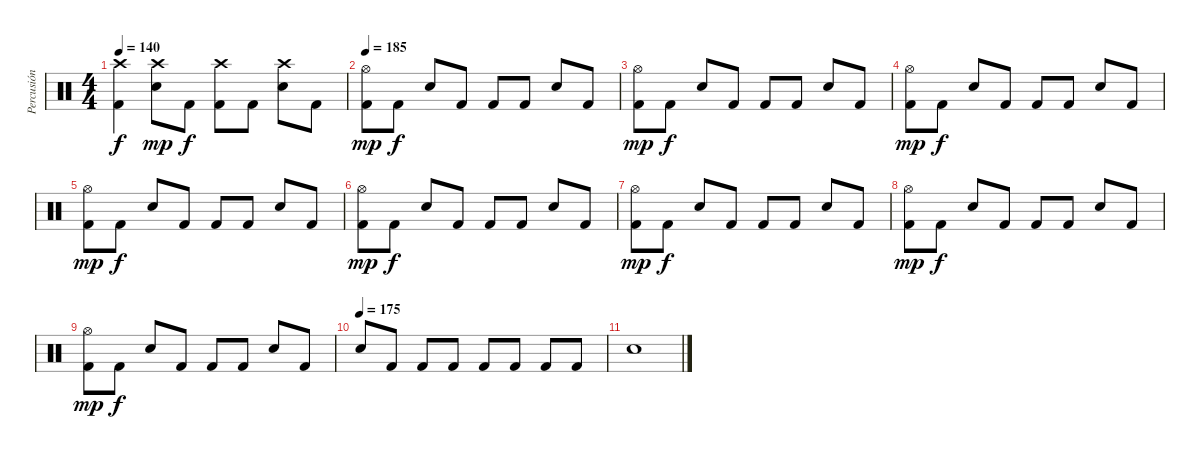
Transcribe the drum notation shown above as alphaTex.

\track ("Percusión" "Percusión") {instrument percussion}
\staff {score}
\articulation defaults
\ts (4 4)
\tempo 140
\clef neutral
\ks c
("Crash high (hit)" "Kick (hit) 2").4{dy f} ("Crash high (hit)" "Electric Snare (hit)").8{dy mp} "Kick (hit) 2".8{dy f} ("Crash high (hit)" "Kick (hit) 2").8 "Kick (hit) 2".8 ("Crash high (hit)" "Electric Snare (hit)").8 "Kick (hit) 2".8 |
\tempo 185
("Kick (hit) 2" "Hi-Hat (open)").8{dy mp} "Kick (hit) 2".8{dy f} "Electric Snare (hit)".8 "Kick (hit) 2".8 "Kick (hit) 2".8 "Kick (hit) 2".8 "Electric Snare (hit)".8 "Kick (hit) 2".8 |
("Kick (hit) 2" "Hi-Hat (open)").8{dy mp} "Kick (hit) 2".8{dy f} "Electric Snare (hit)".8 "Kick (hit) 2".8 "Kick (hit) 2".8 "Kick (hit) 2".8 "Electric Snare (hit)".8 "Kick (hit) 2".8 |
("Kick (hit) 2" "Hi-Hat (open)").8{dy mp} "Kick (hit) 2".8{dy f} "Electric Snare (hit)".8 "Kick (hit) 2".8 "Kick (hit) 2".8 "Kick (hit) 2".8 "Electric Snare (hit)".8 "Kick (hit) 2".8 |
("Kick (hit) 2" "Hi-Hat (open)").8{dy mp} "Kick (hit) 2".8{dy f} "Electric Snare (hit)".8 "Kick (hit) 2".8 "Kick (hit) 2".8 "Kick (hit) 2".8 "Electric Snare (hit)".8 "Kick (hit) 2".8 |
("Kick (hit) 2" "Hi-Hat (open)").8{dy mp} "Kick (hit) 2".8{dy f} "Electric Snare (hit)".8 "Kick (hit) 2".8 "Kick (hit) 2".8 "Kick (hit) 2".8 "Electric Snare (hit)".8 "Kick (hit) 2".8 |
("Kick (hit) 2" "Hi-Hat (open)").8{dy mp} "Kick (hit) 2".8{dy f} "Electric Snare (hit)".8 "Kick (hit) 2".8 "Kick (hit) 2".8 "Kick (hit) 2".8 "Electric Snare (hit)".8 "Kick (hit) 2".8 |
("Kick (hit) 2" "Hi-Hat (open)").8{dy mp} "Kick (hit) 2".8{dy f} "Electric Snare (hit)".8 "Kick (hit) 2".8 "Kick (hit) 2".8 "Kick (hit) 2".8 "Electric Snare (hit)".8 "Kick (hit) 2".8 |
("Kick (hit) 2" "Hi-Hat (open)").8{dy mp} "Kick (hit) 2".8{dy f} "Electric Snare (hit)".8 "Kick (hit) 2".8 "Kick (hit) 2".8 "Kick (hit) 2".8 "Electric Snare (hit)".8 "Kick (hit) 2".8 |
\tempo (175)
"Electric Snare (hit)".8 "Kick (hit) 2".8 "Kick (hit) 2".8 "Kick (hit) 2".8 "Kick (hit) 2".8 "Kick (hit) 2".8 "Kick (hit) 2".8 "Kick (hit) 2".8 |
"Electric Snare (hit)".1
